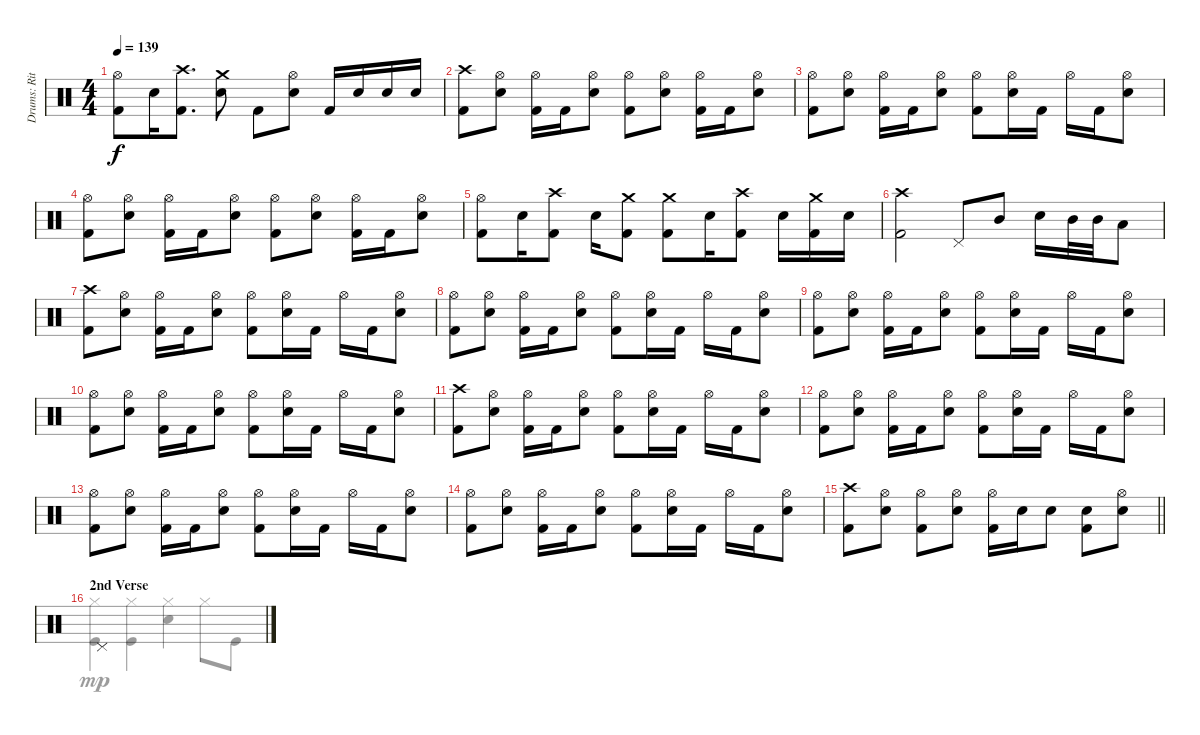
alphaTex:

\track ("Drums: Ritsu Tainaka" "Drums: Rit") {instrument percussion}
\staff {score}
\articulation defaults
\voice
\ts (4 4)
\tempo 139
\clef neutral
\ks c
("Hi-Hat (open)" "Kick (hit) 2").8{dy f} "Electric Snare (hit)".16 ("Crash high (hit)" "Kick (hit) 2").8{d} ("Crash medium (hit)" "Electric Snare (hit)").8 "Kick (hit) 2".8 ("Hi-Hat (open)" "Electric Snare (hit)").8 "Kick (hit) 2".16 "Electric Snare (hit)".16 "Electric Snare (hit)".16 "Electric Snare (hit)".16 |
("Crash high (hit)" "Kick (hit) 2").8 ("Hi-Hat (open)" "Electric Snare (hit)").8 ("Hi-Hat (open)" "Kick (hit) 2").16 "Kick (hit) 2".16 ("Hi-Hat (open)" "Electric Snare (hit)").8 ("Hi-Hat (open)" "Kick (hit) 2").8 ("Hi-Hat (open)" "Electric Snare (hit)").8 ("Hi-Hat (open)" "Kick (hit) 2").16 "Kick (hit) 2".16 ("Hi-Hat (open)" "Electric Snare (hit)").8 |
("Hi-Hat (open)" "Kick (hit) 2").8 ("Hi-Hat (open)" "Electric Snare (hit)").8 ("Hi-Hat (open)" "Kick (hit) 2").16 "Kick (hit) 2".16 ("Hi-Hat (open)" "Electric Snare (hit)").8 ("Hi-Hat (open)" "Kick (hit) 2").8 ("Hi-Hat (open)" "Electric Snare (hit)").16 "Kick (hit) 2".16 "Hi-Hat (open)".16 "Kick (hit) 2".16 ("Hi-Hat (open)" "Electric Snare (hit)").8 |
("Hi-Hat (open)" "Kick (hit) 2").8 ("Hi-Hat (open)" "Electric Snare (hit)").8 ("Hi-Hat (open)" "Kick (hit) 2").16 "Kick (hit) 2".16 ("Hi-Hat (open)" "Electric Snare (hit)").8 ("Hi-Hat (open)" "Kick (hit) 2").8 ("Hi-Hat (open)" "Electric Snare (hit)").8 ("Hi-Hat (open)" "Kick (hit) 2").16 "Kick (hit) 2".16 ("Hi-Hat (open)" "Electric Snare (hit)").8 |
("Hi-Hat (open)" "Kick (hit) 2").8 "Electric Snare (hit)".16 ("Crash high (hit)" "Kick (hit) 2").8 "Electric Snare (hit)".16 ("Crash medium (hit)" "Kick (hit) 2").8 ("Crash medium (hit)" "Kick (hit) 2").8 "Electric Snare (hit)".16 ("Crash high (hit)" "Kick (hit) 2").8 "Electric Snare (hit)".16 ("Crash medium (hit)" "Kick (hit) 2").16 "Electric Snare (hit)".16 |
("Crash high (hit)" "Kick (hit) 2").2 "Pedal Hi-Hat (hit)".8 "Mid Tom (hit)".8 "Electric Snare (hit)".16 "Mid Tom (hit)".32 "Mid Tom (hit)".32 "Low Tom (hit)".8 |
("Crash high (hit)" "Kick (hit) 2").8 ("Hi-Hat (open)" "Electric Snare (hit)").8 ("Hi-Hat (open)" "Kick (hit) 2").16 "Kick (hit) 2".16 ("Hi-Hat (open)" "Electric Snare (hit)").8 ("Hi-Hat (open)" "Kick (hit) 2").8 ("Hi-Hat (open)" "Electric Snare (hit)").16 "Kick (hit) 2".16 "Hi-Hat (open)".16 "Kick (hit) 2".16 ("Hi-Hat (open)" "Electric Snare (hit)").8 |
("Hi-Hat (open)" "Kick (hit) 2").8 ("Hi-Hat (open)" "Electric Snare (hit)").8 ("Hi-Hat (open)" "Kick (hit) 2").16 "Kick (hit) 2".16 ("Hi-Hat (open)" "Electric Snare (hit)").8 ("Hi-Hat (open)" "Kick (hit) 2").8 ("Hi-Hat (open)" "Electric Snare (hit)").16 "Kick (hit) 2".16 "Hi-Hat (open)".16 "Kick (hit) 2".16 ("Hi-Hat (open)" "Electric Snare (hit)").8 |
("Hi-Hat (open)" "Kick (hit) 2").8 ("Hi-Hat (open)" "Electric Snare (hit)").8 ("Hi-Hat (open)" "Kick (hit) 2").16 "Kick (hit) 2".16 ("Hi-Hat (open)" "Electric Snare (hit)").8 ("Hi-Hat (open)" "Kick (hit) 2").8 ("Hi-Hat (open)" "Electric Snare (hit)").16 "Kick (hit) 2".16 "Hi-Hat (open)".16 "Kick (hit) 2".16 ("Hi-Hat (open)" "Electric Snare (hit)").8 |
("Hi-Hat (open)" "Kick (hit) 2").8 ("Hi-Hat (open)" "Electric Snare (hit)").8 ("Hi-Hat (open)" "Kick (hit) 2").16 "Kick (hit) 2".16 ("Hi-Hat (open)" "Electric Snare (hit)").8 ("Hi-Hat (open)" "Kick (hit) 2").8 ("Hi-Hat (open)" "Electric Snare (hit)").16 "Kick (hit) 2".16 "Hi-Hat (open)".16 "Kick (hit) 2".16 ("Hi-Hat (open)" "Electric Snare (hit)").8 |
("Crash high (hit)" "Kick (hit) 2").8 ("Hi-Hat (open)" "Electric Snare (hit)").8 ("Hi-Hat (open)" "Kick (hit) 2").16 "Kick (hit) 2".16 ("Hi-Hat (open)" "Electric Snare (hit)").8 ("Hi-Hat (open)" "Kick (hit) 2").8 ("Hi-Hat (open)" "Electric Snare (hit)").16 "Kick (hit) 2".16 "Hi-Hat (open)".16 "Kick (hit) 2".16 ("Hi-Hat (open)" "Electric Snare (hit)").8 |
("Hi-Hat (open)" "Kick (hit) 2").8 ("Hi-Hat (open)" "Electric Snare (hit)").8 ("Hi-Hat (open)" "Kick (hit) 2").16 "Kick (hit) 2".16 ("Hi-Hat (open)" "Electric Snare (hit)").8 ("Hi-Hat (open)" "Kick (hit) 2").8 ("Hi-Hat (open)" "Electric Snare (hit)").16 "Kick (hit) 2".16 "Hi-Hat (open)".16 "Kick (hit) 2".16 ("Hi-Hat (open)" "Electric Snare (hit)").8 |
("Hi-Hat (open)" "Kick (hit) 2").8 ("Hi-Hat (open)" "Electric Snare (hit)").8 ("Hi-Hat (open)" "Kick (hit) 2").16 "Kick (hit) 2".16 ("Hi-Hat (open)" "Electric Snare (hit)").8 ("Hi-Hat (open)" "Kick (hit) 2").8 ("Hi-Hat (open)" "Electric Snare (hit)").16 "Kick (hit) 2".16 "Hi-Hat (open)".16 "Kick (hit) 2".16 ("Hi-Hat (open)" "Electric Snare (hit)").8 |
("Hi-Hat (open)" "Kick (hit) 2").8 ("Hi-Hat (open)" "Electric Snare (hit)").8 ("Hi-Hat (open)" "Kick (hit) 2").16 "Kick (hit) 2".16 ("Hi-Hat (open)" "Electric Snare (hit)").8 ("Hi-Hat (open)" "Kick (hit) 2").8 ("Hi-Hat (open)" "Electric Snare (hit)").16 "Kick (hit) 2".16 "Hi-Hat (open)".16 "Kick (hit) 2".16 ("Hi-Hat (open)" "Electric Snare (hit)").8 |
\barLineRight lightlight
("Crash high (hit)" "Kick (hit) 2").8 ("Hi-Hat (open)" "Electric Snare (hit)").8 ("Hi-Hat (open)" "Kick (hit) 2").8 ("Hi-Hat (open)" "Electric Snare (hit)").8 ("Hi-Hat (open)" "Kick (hit) 2").16 "Electric Snare (hit)".16 "Electric Snare (hit)".8 ("Electric Snare (hit)" "Kick (hit) 2").8 ("Hi-Hat (open)" "Electric Snare (hit)").8 |
\section ("" "2nd Verse")
"Pedal Hi-Hat (hit)".1
\voice
\clef neutral
\ottava regular
\simile none
\ks c
|
|
|
|
|
|
|
|
|
|
|
|
|
|
\barLineRight lightlight
|
("Hi-Hat (closed)" "Kick (hit)").4{dy mp} ("Hi-Hat (closed)" "Kick (hit)").4 ("Hi-Hat (closed)" "Snare (hit) 2").4 "Hi-Hat (closed)".8 "Kick (hit)".8
